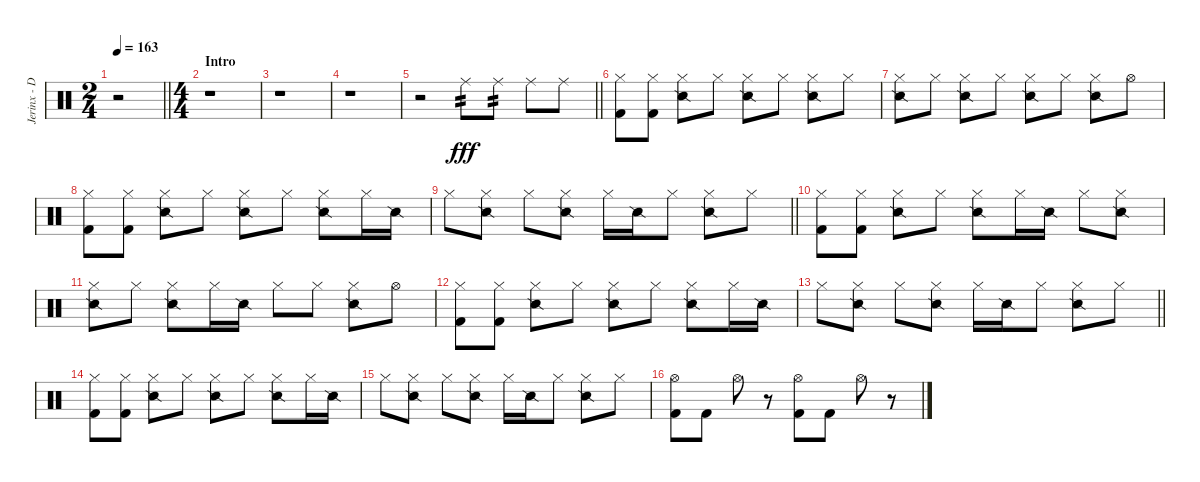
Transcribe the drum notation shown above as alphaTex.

\track ("Jerinx - Drum" "Jerinx - D") {instrument percussion}
\staff {score}
\articulation defaults
\ts (2 4)
\tempo 163
\clef neutral
\barLineRight lightlight
\ks c
r.2{dy fff} |
\ts (4 4)
\section ("" "Intro")
r.1 |
r.1 |
r.1 |
\barLineRight lightlight
r.2 "Ride (middle)".8{tp 2} "Ride (middle)".8{tp 2} "Ride (middle)".8 "Ride (middle)".8 |
("Hi-Hat (closed)" "Kick (hit) 2").8 ("Hi-Hat (closed)" "Kick (hit) 2").8 ("Hi-Hat (closed)" "Snare (side stick) 2").8 "Hi-Hat (closed)".8 ("Hi-Hat (closed)" "Snare (side stick) 2").8 "Hi-Hat (closed)".8 ("Hi-Hat (closed)" "Snare (side stick) 2").8 "Hi-Hat (closed)".8 |
("Hi-Hat (closed)" "Snare (side stick) 2").8 "Hi-Hat (closed)".8 ("Hi-Hat (closed)" "Snare (side stick) 2").8 "Hi-Hat (closed)".8 ("Hi-Hat (closed)" "Snare (side stick) 2").8 "Hi-Hat (closed)".8 ("Hi-Hat (closed)" "Snare (side stick) 2").8 "Hi-Hat (open)".8 |
("Hi-Hat (closed)" "Kick (hit) 2").8 ("Hi-Hat (closed)" "Kick (hit) 2").8 ("Hi-Hat (closed)" "Snare (side stick) 2").8 "Hi-Hat (closed)".8 ("Hi-Hat (closed)" "Snare (side stick) 2").8 "Hi-Hat (closed)".8 ("Hi-Hat (closed)" "Snare (side stick) 2").8 "Hi-Hat (closed)".16 "Snare (side stick) 2".16 |
\barLineRight lightlight "Hi-Hat (closed)".8
("Hi-Hat (closed)" "Snare (side stick) 2").8 "Hi-Hat (closed)".8 ("Hi-Hat (closed)" "Snare (side stick) 2").8 "Hi-Hat (closed)".16 "Snare (side stick) 2".16 "Hi-Hat (closed)".8 ("Hi-Hat (closed)" "Snare (side stick) 2").8 "Hi-Hat (closed)".8 |
("Hi-Hat (closed)" "Kick (hit) 2").8 ("Hi-Hat (closed)" "Kick (hit) 2").8 ("Hi-Hat (closed)" "Snare (side stick) 2").8 "Hi-Hat (closed)".8 ("Hi-Hat (closed)" "Snare (side stick) 2").8 "Hi-Hat (closed)".16 "Snare (side stick) 2".16 "Hi-Hat (closed)".8 ("Hi-Hat (closed)" "Snare (side stick) 2").8 |
("Hi-Hat (closed)" "Snare (side stick) 2").8 "Hi-Hat (closed)".8 ("Hi-Hat (closed)" "Snare (side stick) 2").8 "Hi-Hat (closed)".16 "Snare (side stick) 2".16 "Hi-Hat (closed)".8 "Hi-Hat (closed)".8 ("Hi-Hat (closed)" "Snare (side stick) 2").8 "Hi-Hat (open)".8 |
("Hi-Hat (closed)" "Kick (hit) 2").8 ("Hi-Hat (closed)" "Kick (hit) 2").8 ("Hi-Hat (closed)" "Snare (side stick) 2").8 "Hi-Hat (closed)".8 ("Hi-Hat (closed)" "Snare (side stick) 2").8 "Hi-Hat (closed)".8 ("Hi-Hat (closed)" "Snare (side stick) 2").8 "Hi-Hat (closed)".16 "Snare (side stick) 2".16 |
\barLineRight lightlight "Hi-Hat (closed)".8
("Hi-Hat (closed)" "Snare (side stick) 2").8 "Hi-Hat (closed)".8 ("Hi-Hat (closed)" "Snare (side stick) 2").8 "Hi-Hat (closed)".16 "Snare (side stick) 2".16 "Hi-Hat (closed)".8 ("Hi-Hat (closed)" "Snare (side stick) 2").8 "Hi-Hat (closed)".8 |
("Hi-Hat (closed)" "Kick (hit) 2").8 ("Hi-Hat (closed)" "Kick (hit) 2").8 ("Hi-Hat (closed)" "Snare (side stick) 2").8 "Hi-Hat (closed)".8 ("Hi-Hat (closed)" "Snare (side stick) 2").8 "Hi-Hat (closed)".8 ("Hi-Hat (closed)" "Snare (side stick) 2").8 "Hi-Hat (closed)".16 "Snare (side stick) 2".16 |
"Hi-Hat (closed)".8 ("Hi-Hat (closed)" "Snare (side stick) 2").8 "Hi-Hat (closed)".8 ("Hi-Hat (closed)" "Snare (side stick) 2").8 "Hi-Hat (closed)".16 "Snare (side stick) 2".16 "Hi-Hat (closed)".8 ("Hi-Hat (closed)" "Snare (side stick) 2").8 "Hi-Hat (closed)".8 |
("Hi-Hat (open)" "Kick (hit) 2").8 "Kick (hit) 2".8 "Hi-Hat (open)".8 r.8 ("Hi-Hat (open)" "Kick (hit) 2").8 "Kick (hit) 2".8 "Hi-Hat (open)".8 r.8
